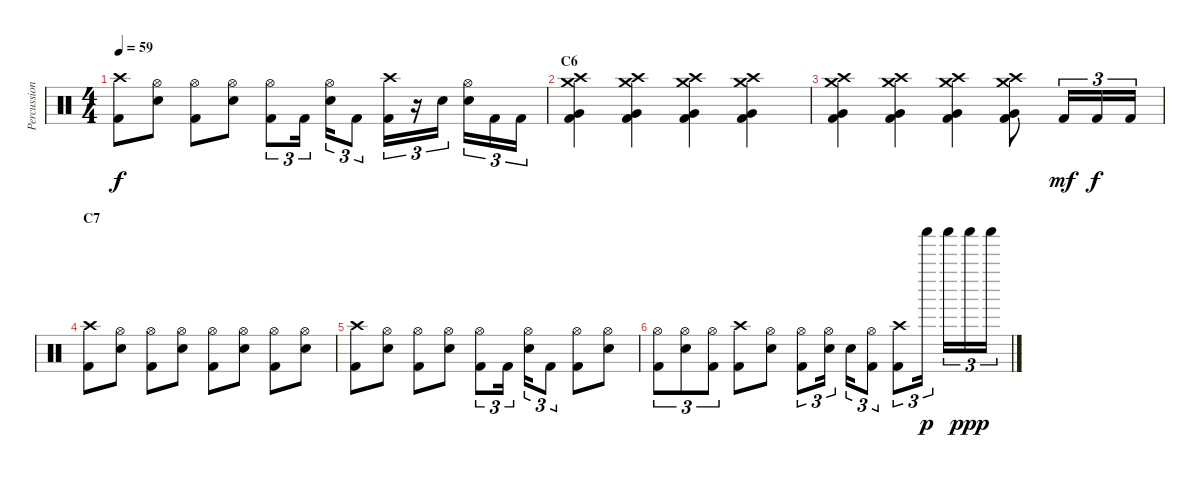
\track ("Percussion" "Percussion") {instrument percussion}
\staff {score}
\articulation defaults
\ts (4 4)
\tempo 59
\clef neutral
\ks c
("Crash high (hit)" "Kick (hit) 2").8{dy f} ("Hi-Hat (open)" "Electric Snare (hit)").8 ("Hi-Hat (open)" "Kick (hit) 2").8 ("Hi-Hat (open)" "Electric Snare (hit)").8 ("Hi-Hat (open)" "Kick (hit) 2").8{tu (3 2)} "Kick (hit) 2".16{tu (3 2)} ("Hi-Hat (open)" "Electric Snare (hit)").16{tu (3 2)} "Kick (hit) 2".8{tu (3 2)} ("Crash high (hit)" "Kick (hit) 2").16{tu (3 2)} r.16{tu (3 2)} "Electric Snare (hit)".16{tu (3 2)} ("Hi-Hat (open)" "Electric Snare (hit)").16{tu (3 2)} "Kick (hit) 2".16{tu (3 2)} "Kick (hit) 2".16{tu (3 2)} |
\section ("" "C6")
("Crash medium (hit)" "Crash high (hit)" "Kick (hit) 2" "Very Low Tom (hit)").4 ("Crash medium (hit)" "Crash high (hit)" "Kick (hit) 2" "Very Low Tom (hit)").4 ("Crash medium (hit)" "Crash high (hit)" "Kick (hit) 2" "Very Low Tom (hit)").4 ("Crash medium (hit)" "Crash high (hit)" "Kick (hit) 2" "Very Low Tom (hit)").4 |
("Crash medium (hit)" "Crash high (hit)" "Kick (hit) 2" "Very Low Tom (hit)").4 ("Crash medium (hit)" "Crash high (hit)" "Kick (hit) 2" "Very Low Tom (hit)").4 ("Crash medium (hit)" "Crash high (hit)" "Kick (hit) 2" "Very Low Tom (hit)").4 ("Crash medium (hit)" "Crash high (hit)" "Kick (hit) 2" "Very Low Tom (hit)").8 "Kick (hit) 2".16{tu (3 2) dy mf} "Kick (hit) 2".16{tu (3 2) dy f} "Kick (hit) 2".16{tu (3 2)} |
\section ("" "C7")
("Crash high (hit)" "Kick (hit) 2").8 ("Hi-Hat (open)" "Electric Snare (hit)").8 ("Hi-Hat (open)" "Kick (hit) 2").8 ("Hi-Hat (open)" "Electric Snare (hit)").8 ("Hi-Hat (open)" "Kick (hit) 2").8 ("Hi-Hat (open)" "Electric Snare (hit)").8 ("Hi-Hat (open)" "Kick (hit) 2").8 ("Hi-Hat (open)" "Electric Snare (hit)").8 |
("Crash high (hit)" "Kick (hit) 2").8 ("Hi-Hat (open)" "Electric Snare (hit)").8 ("Hi-Hat (open)" "Kick (hit) 2").8 ("Hi-Hat (open)" "Electric Snare (hit)").8 ("Hi-Hat (open)" "Kick (hit) 2").8{tu (3 2)} "Kick (hit) 2".16{tu (3 2)} ("Hi-Hat (open)" "Electric Snare (hit)").16{tu (3 2)} "Kick (hit) 2".8{tu (3 2)} ("Hi-Hat (open)" "Kick (hit) 2").8 ("Hi-Hat (open)" "Electric Snare (hit)").8 |
("Hi-Hat (open)" "Kick (hit) 2").8{tu (3 2)} ("Hi-Hat (open)" "Electric Snare (hit)").8{tu (3 2)} ("Hi-Hat (open)" "Kick (hit) 2").8{tu (3 2)} ("Crash high (hit)" "Kick (hit) 2").8 ("Hi-Hat (open)" "Electric Snare (hit)").8 ("Hi-Hat (open)" "Kick (hit) 2").8{tu (3 2)} ("Hi-Hat (open)" "Electric Snare (hit)").16{tu (3 2)} "Electric Snare (hit)".16{tu (3 2)} ("Hi-Hat (open)" "Kick (hit) 2").8{tu (3 2)} ("Crash high (hit)" "Kick (hit) 2").8{tu (3 2)} "Shaker (hit)".16{tu (3 2) dy p} "Shaker (hit)".16{tu (3 2)} "Shaker (hit)".16{tu (3 2) dy ppp} "Shaker (hit)".16{tu (3 2)}
